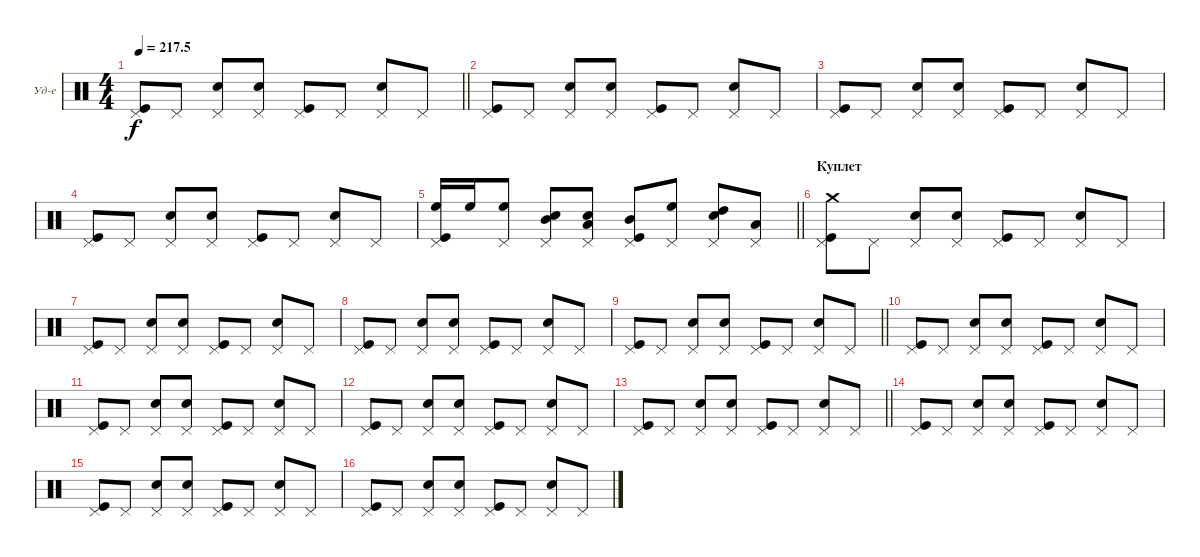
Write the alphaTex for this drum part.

\bracketExtendMode groupsimilarinstruments
\firstSystemTrackNameOrientation horizontal
\otherSystemsTrackNameOrientation horizontal
\track ("Ударные" "Уд-е") {instrument percussion}
\staff {score}
\articulation defaults
\ts (4 4)
\tempo
217.5
\accidentals auto
\clef neutral
\ottava regular
\simile none
\barLineRight lightlight
\ks c
("Pedal Hi-Hat (hit)" "Kick (hit)").8{dy f} "Pedal Hi-Hat (hit)".8 ("Pedal Hi-Hat (hit)" "Snare (hit) 2").8 ("Pedal Hi-Hat (hit)" "Snare (hit) 2").8 ("Pedal Hi-Hat (hit)" "Kick (hit)").8 "Pedal Hi-Hat (hit)".8 ("Pedal Hi-Hat (hit)" "Snare (hit) 2").8 "Pedal Hi-Hat (hit)".8 |
("Pedal Hi-Hat (hit)" "Kick (hit)").8 "Pedal Hi-Hat (hit)".8 ("Pedal Hi-Hat (hit)" "Snare (hit) 2").8 ("Pedal Hi-Hat (hit)" "Snare (hit) 2").8 ("Pedal Hi-Hat (hit)" "Kick (hit)").8 "Pedal Hi-Hat (hit)".8 ("Pedal Hi-Hat (hit)" "Snare (hit) 2").8 "Pedal Hi-Hat (hit)".8 |
("Pedal Hi-Hat (hit)" "Kick (hit)").8 "Pedal Hi-Hat (hit)".8 ("Pedal Hi-Hat (hit)" "Snare (hit) 2").8 ("Pedal Hi-Hat (hit)" "Snare (hit) 2").8 ("Pedal Hi-Hat (hit)" "Kick (hit)").8 "Pedal Hi-Hat (hit)".8 ("Pedal Hi-Hat (hit)" "Snare (hit) 2").8 "Pedal Hi-Hat (hit)".8 |
("Pedal Hi-Hat (hit)" "Kick (hit)").8 "Pedal Hi-Hat (hit)".8 ("Pedal Hi-Hat (hit)" "Snare (hit) 2").8 ("Pedal Hi-Hat (hit)" "Snare (hit) 2").8 ("Pedal Hi-Hat (hit)" "Kick (hit)").8 "Pedal Hi-Hat (hit)".8 ("Pedal Hi-Hat (hit)" "Snare (hit) 2").8 "Pedal Hi-Hat (hit)".8 |
\barLineRight lightlight
("Pedal Hi-Hat (hit)" "Kick (hit)" "High Floor Tom (hit)").16 "High Floor Tom (hit)".16 ("Pedal Hi-Hat (hit)" "High Floor Tom (hit)").8 ("Pedal Hi-Hat (hit)" "Snare (hit) 2" "Mid Tom (hit)").8 ("Pedal Hi-Hat (hit)" "Snare (hit) 2" "Low Tom (hit)").8 ("Pedal Hi-Hat (hit)" "Kick (hit)" "Mid Tom (hit)").8 ("Pedal Hi-Hat (hit)" "High Floor Tom (hit)").8 ("Pedal Hi-Hat (hit)" "Snare (hit) 2" "High Tom (hit)").8 ("Pedal Hi-Hat (hit)" "Low Tom (hit)").8 |
\section ("" "Куплет")
("Pedal Hi-Hat (hit)" "Kick (hit)" "Crash medium (hit)").8 "Pedal Hi-Hat (hit)".8 ("Pedal Hi-Hat (hit)" "Snare (hit) 2").8 ("Pedal Hi-Hat (hit)" "Snare (hit) 2").8 ("Pedal Hi-Hat (hit)" "Kick (hit)").8 "Pedal Hi-Hat (hit)".8 ("Pedal Hi-Hat (hit)" "Snare (hit) 2").8 "Pedal Hi-Hat (hit)".8 |
("Pedal Hi-Hat (hit)" "Kick (hit)").8 "Pedal Hi-Hat (hit)".8 ("Pedal Hi-Hat (hit)" "Snare (hit) 2").8 ("Pedal Hi-Hat (hit)" "Snare (hit) 2").8 ("Pedal Hi-Hat (hit)" "Kick (hit)").8 "Pedal Hi-Hat (hit)".8 ("Pedal Hi-Hat (hit)" "Snare (hit) 2").8 "Pedal Hi-Hat (hit)".8 |
("Pedal Hi-Hat (hit)" "Kick (hit)").8 "Pedal Hi-Hat (hit)".8 ("Pedal Hi-Hat (hit)" "Snare (hit) 2").8 ("Pedal Hi-Hat (hit)" "Snare (hit) 2").8 ("Pedal Hi-Hat (hit)" "Kick (hit)").8 "Pedal Hi-Hat (hit)".8 ("Pedal Hi-Hat (hit)" "Snare (hit) 2").8 "Pedal Hi-Hat (hit)".8 |
\barLineRight lightlight
("Pedal Hi-Hat (hit)" "Kick (hit)").8 "Pedal Hi-Hat (hit)".8 ("Pedal Hi-Hat (hit)" "Snare (hit) 2").8 ("Pedal Hi-Hat (hit)" "Snare (hit) 2").8 ("Pedal Hi-Hat (hit)" "Kick (hit)").8 "Pedal Hi-Hat (hit)".8 ("Pedal Hi-Hat (hit)" "Snare (hit) 2").8 "Pedal Hi-Hat (hit)".8 |
("Pedal Hi-Hat (hit)" "Kick (hit)").8 "Pedal Hi-Hat (hit)".8 ("Pedal Hi-Hat (hit)" "Snare (hit) 2").8 ("Pedal Hi-Hat (hit)" "Snare (hit) 2").8 ("Pedal Hi-Hat (hit)" "Kick (hit)").8 "Pedal Hi-Hat (hit)".8 ("Pedal Hi-Hat (hit)" "Snare (hit) 2").8 "Pedal Hi-Hat (hit)".8 |
("Pedal Hi-Hat (hit)" "Kick (hit)").8 "Pedal Hi-Hat (hit)".8 ("Pedal Hi-Hat (hit)" "Snare (hit) 2").8 ("Pedal Hi-Hat (hit)" "Snare (hit) 2").8 ("Pedal Hi-Hat (hit)" "Kick (hit)").8 "Pedal Hi-Hat (hit)".8 ("Pedal Hi-Hat (hit)" "Snare (hit) 2").8 "Pedal Hi-Hat (hit)".8 |
("Pedal Hi-Hat (hit)" "Kick (hit)").8 "Pedal Hi-Hat (hit)".8 ("Pedal Hi-Hat (hit)" "Snare (hit) 2").8 ("Pedal Hi-Hat (hit)" "Snare (hit) 2").8 ("Pedal Hi-Hat (hit)" "Kick (hit)").8 "Pedal Hi-Hat (hit)".8 ("Pedal Hi-Hat (hit)" "Snare (hit) 2").8 "Pedal Hi-Hat (hit)".8 |
\barLineRight lightlight
("Pedal Hi-Hat (hit)" "Kick (hit)").8 "Pedal Hi-Hat (hit)".8 ("Pedal Hi-Hat (hit)" "Snare (hit) 2").8 ("Pedal Hi-Hat (hit)" "Snare (hit) 2").8 ("Pedal Hi-Hat (hit)" "Kick (hit)").8 "Pedal Hi-Hat (hit)".8 ("Pedal Hi-Hat (hit)" "Snare (hit) 2").8 "Pedal Hi-Hat (hit)".8 |
("Pedal Hi-Hat (hit)" "Kick (hit)").8 "Pedal Hi-Hat (hit)".8 ("Pedal Hi-Hat (hit)" "Snare (hit) 2").8 ("Pedal Hi-Hat (hit)" "Snare (hit) 2").8 ("Pedal Hi-Hat (hit)" "Kick (hit)").8 "Pedal Hi-Hat (hit)".8 ("Pedal Hi-Hat (hit)" "Snare (hit) 2").8 "Pedal Hi-Hat (hit)".8 |
("Pedal Hi-Hat (hit)" "Kick (hit)").8 "Pedal Hi-Hat (hit)".8 ("Pedal Hi-Hat (hit)" "Snare (hit) 2").8 ("Pedal Hi-Hat (hit)" "Snare (hit) 2").8 ("Pedal Hi-Hat (hit)" "Kick (hit)").8 "Pedal Hi-Hat (hit)".8 ("Pedal Hi-Hat (hit)" "Snare (hit) 2").8 "Pedal Hi-Hat (hit)".8 |
("Pedal Hi-Hat (hit)" "Kick (hit)").8 "Pedal Hi-Hat (hit)".8 ("Pedal Hi-Hat (hit)" "Snare (hit) 2").8 ("Pedal Hi-Hat (hit)" "Snare (hit) 2").8 ("Pedal Hi-Hat (hit)" "Kick (hit)").8 "Pedal Hi-Hat (hit)".8 ("Pedal Hi-Hat (hit)" "Snare (hit) 2").8 "Pedal Hi-Hat (hit)".8
